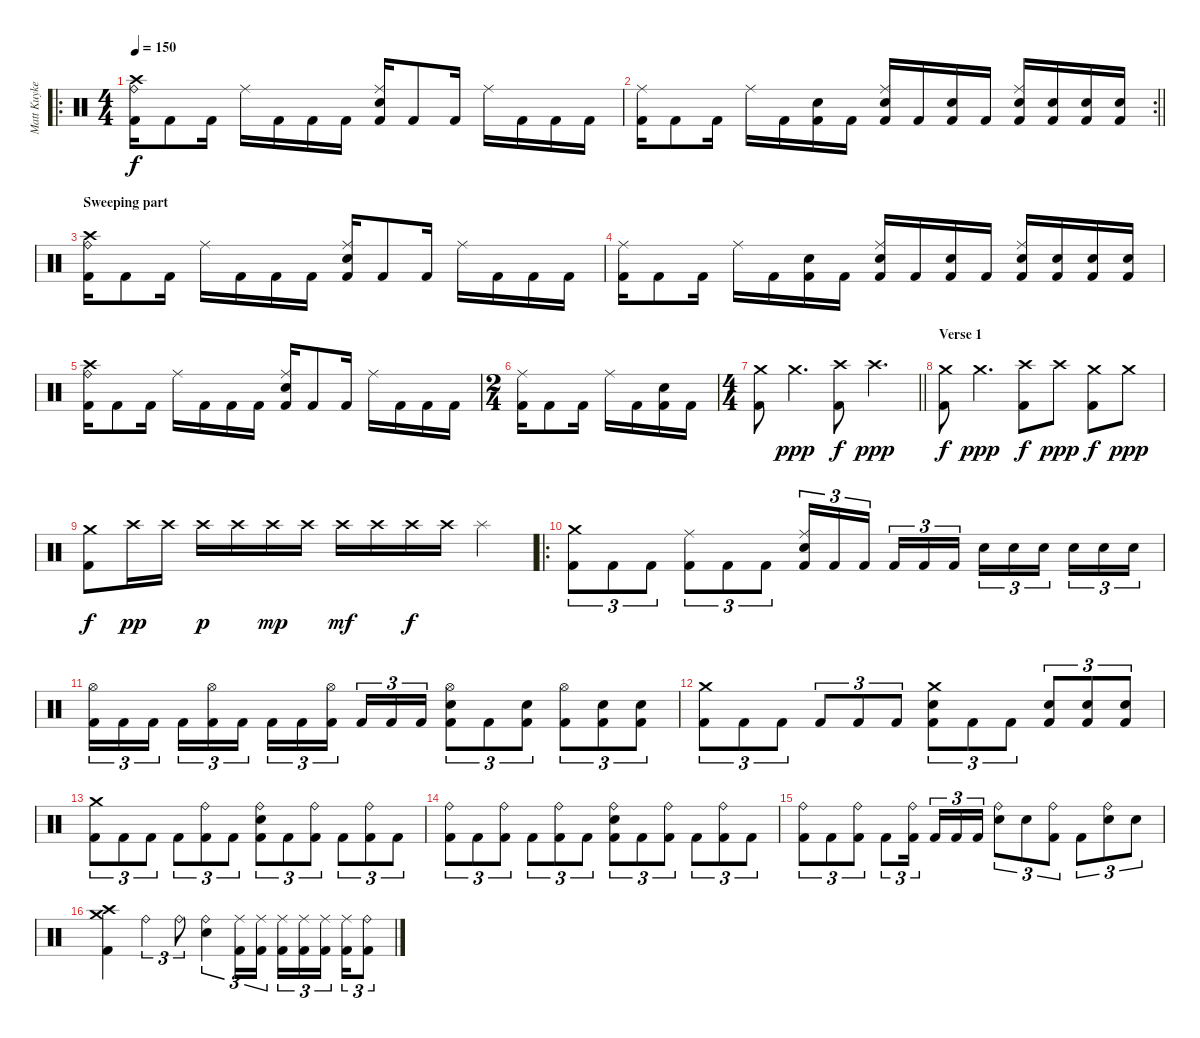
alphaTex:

\track ("Matt Kuykendall" "Matt Kuyke") {instrument percussion}
\staff {score}
\articulation defaults
\ro
\ts (4 4)
\tempo 150
\clef neutral
\ks c
("Ride (bell)" "Crash high (hit)" "Kick (hit) 2").16{dy f} "Kick (hit) 2".8 "Kick (hit) 2".16 "Ride (middle)".16 "Kick (hit) 2".16 "Kick (hit) 2".16 "Kick (hit) 2".16 ("Ride (middle)" "Electric Snare (hit)" "Kick (hit) 2").16 "Kick (hit) 2".8 "Kick (hit) 2".16 "Ride (middle)".16 "Kick (hit) 2".16 "Kick (hit) 2".16 "Kick (hit) 2".16 |
\rc 2
\barLineRight lightlight
("Ride (middle)" "Kick (hit) 2").16 "Kick (hit) 2".8 "Kick (hit) 2".16 "Ride (middle)".16 "Kick (hit) 2".16 ("Electric Snare (hit)" "Kick (hit) 2").16 "Kick (hit) 2".16 ("Ride (middle)" "Electric Snare (hit)" "Kick (hit) 2").16 "Kick (hit) 2".16 ("Electric Snare (hit)" "Kick (hit) 2").16 "Kick (hit) 2".16 ("Ride (middle)" "Electric Snare (hit)" "Kick (hit) 2").16 ("Electric Snare (hit)" "Kick (hit) 2").16 ("Electric Snare (hit)" "Kick (hit) 2").16 ("Electric Snare (hit)" "Kick (hit) 2").16 |
\section ("" "Sweeping part")
("Ride (bell)" "Crash high (hit)" "Kick (hit) 2").16 "Kick (hit) 2".8 "Kick (hit) 2".16 "Ride (middle)".16 "Kick (hit) 2".16 "Kick (hit) 2".16 "Kick (hit) 2".16 ("Ride (middle)" "Electric Snare (hit)" "Kick (hit) 2").16 "Kick (hit) 2".8 "Kick (hit) 2".16 "Ride (middle)".16 "Kick (hit) 2".16 "Kick (hit) 2".16 "Kick (hit) 2".16 |
("Ride (middle)" "Kick (hit) 2").16 "Kick (hit) 2".8 "Kick (hit) 2".16 "Ride (middle)".16 "Kick (hit) 2".16 ("Electric Snare (hit)" "Kick (hit) 2").16 "Kick (hit) 2".16 ("Ride (middle)" "Electric Snare (hit)" "Kick (hit) 2").16 "Kick (hit) 2".16 ("Electric Snare (hit)" "Kick (hit) 2").16 "Kick (hit) 2".16 ("Ride (middle)" "Electric Snare (hit)" "Kick (hit) 2").16 ("Electric Snare (hit)" "Kick (hit) 2").16 ("Electric Snare (hit)" "Kick (hit) 2").16 ("Electric Snare (hit)" "Kick (hit) 2").16 |
("Ride (bell)" "Crash high (hit)" "Kick (hit) 2").16 "Kick (hit) 2".8 "Kick (hit) 2".16 "Ride (middle)".16 "Kick (hit) 2".16 "Kick (hit) 2".16 "Kick (hit) 2".16 ("Ride (middle)" "Electric Snare (hit)" "Kick (hit) 2").16 "Kick (hit) 2".8 "Kick (hit) 2".16 "Ride (middle)".16 "Kick (hit) 2".16 "Kick (hit) 2".16 "Kick (hit) 2".16 |
\ts (2 4)
("Ride (middle)" "Kick (hit) 2").16 "Kick (hit) 2".8 "Kick (hit) 2".16 "Ride (middle)".16 "Kick (hit) 2".16 ("Electric Snare (hit)" "Kick (hit) 2").16 "Kick (hit) 2".16 |
\ts (4 4)
\barLineRight lightlight
("Crash medium (hit)" "Kick (hit) 2").8 "Crash medium (hit)".4{d dy ppp} ("Crash high (hit)" "Kick (hit) 2").8{dy f} "Crash high (hit)".4{d dy ppp} |
\section ("" "Verse 1")
("Crash medium (hit)" "Kick (hit) 2").8{dy f} "Crash medium (hit)".4{d dy ppp} ("Crash high (hit)" "Kick (hit) 2").8{dy f} "Crash high (hit)".8{dy ppp} ("Crash medium (hit)" "Kick (hit) 2").8{dy f} "Crash medium (hit)".8{dy ppp} |
("Crash medium (hit)" "Kick (hit) 2").8{dy f} "Crash high (hit)".16{dy pp} "Crash high (hit)".16 "Crash high (hit)".16{dy p} "Crash high (hit)".16 "Crash high (hit)".16{dy mp} "Crash high (hit)".16 "Crash high (hit)".16{dy mf} "Crash high (hit)".16 "Crash high (hit)".16{dy f} "Crash high (hit)".16 "Splash (hit)".4 |
\ro
("Crash medium (hit)" "Kick (hit) 2").8{tu (3 2)} "Kick (hit) 2".8{tu (3 2)} "Kick (hit) 2".8{tu (3 2)} ("Ride (middle)" "Kick (hit) 2").8{tu (3 2)} "Kick (hit) 2".8{tu (3 2)} "Kick (hit) 2".8{tu (3 2)} ("Ride (middle)" "Electric Snare (hit)" "Kick (hit) 2").16{tu (3 2)} "Kick (hit) 2".16{tu (3 2)} "Kick (hit) 2".16{tu (3 2) beam splitsecondary} "Kick (hit) 2".16{tu (3 2)} "Kick (hit) 2".16{tu (3 2)} "Kick (hit) 2".16{tu (3 2)} "Electric Snare (hit)".16{tu (3 2)} "Electric Snare (hit)".16{tu (3 2)} "Electric Snare (hit)".16{tu (3 2) beam splitsecondary} "Electric Snare (hit)".16{tu (3 2)} "Electric Snare (hit)".16{tu (3 2)} "Electric Snare (hit)".16{tu (3 2)} |
("Hi-Hat (open)" "Kick (hit) 2").16{tu (3 2)} "Kick (hit) 2".16{tu (3 2)} "Kick (hit) 2".16{tu (3 2) beam splitsecondary} "Kick (hit) 2".16{tu (3 2)} ("Hi-Hat (open)" "Kick (hit) 2").16{tu (3 2)} "Kick (hit) 2".16{tu (3 2)} "Kick (hit) 2".16{tu (3 2)} "Kick (hit) 2".16{tu (3 2)} ("Hi-Hat (open)" "Kick (hit) 2").16{tu (3 2) beam splitsecondary} "Kick (hit) 2".16{tu (3 2)} "Kick (hit) 2".16{tu (3 2)} "Kick (hit) 2".16{tu (3 2)} ("Hi-Hat (open)" "Electric Snare (hit)" "Kick (hit) 2").8{tu (3 2)} "Kick (hit) 2".8{tu (3 2)} ("Electric Snare (hit)" "Kick (hit) 2").8{tu (3 2)} ("Hi-Hat (open)" "Kick (hit) 2").8{tu (3 2)} ("Electric Snare (hit)" "Kick (hit) 2").8{tu (3 2)} ("Electric Snare (hit)" "Kick (hit) 2").8{tu (3 2)} |
("Crash medium (hit)" "Kick (hit) 2").8{tu (3 2)} "Kick (hit) 2".8{tu (3 2)} "Kick (hit) 2".8{tu (3 2)} "Kick (hit) 2".8{tu (3 2)} "Kick (hit) 2".8{tu (3 2)} "Kick (hit) 2".8{tu (3 2)} ("Crash medium (hit)" "Electric Snare (hit)" "Kick (hit) 2").8{tu (3 2)} "Kick (hit) 2".8{tu (3 2)} "Kick (hit) 2".8{tu (3 2)} ("Electric Snare (hit)" "Kick (hit) 2").8{tu (3 2)} ("Electric Snare (hit)" "Kick (hit) 2").8{tu (3 2)} ("Electric Snare (hit)" "Kick (hit) 2").8{tu (3 2)} |
("Crash medium (hit)" "Kick (hit) 2").8{tu (3 2)} "Kick (hit) 2".8{tu (3 2)} "Kick (hit) 2".8{tu (3 2)} "Kick (hit) 2".8{tu (3 2)} ("Ride (bell)" "Kick (hit) 2").8{tu (3 2)} "Kick (hit) 2".8{tu (3 2)} ("Ride (bell)" "Electric Snare (hit)" "Kick (hit) 2").8{tu (3 2)} "Kick (hit) 2".8{tu (3 2)} ("Ride (bell)" "Kick (hit) 2").8{tu (3 2)} "Kick (hit) 2".8{tu (3 2)} ("Ride (bell)" "Kick (hit) 2").8{tu (3 2)} "Kick (hit) 2".8{tu (3 2)} |
("Ride (bell)" "Kick (hit) 2").8{tu (3 2)} "Kick (hit) 2".8{tu (3 2)} ("Ride (bell)" "Kick (hit) 2").8{tu (3 2)} "Kick (hit) 2".8{tu (3 2)} ("Ride (bell)" "Kick (hit) 2").8{tu (3 2)} "Kick (hit) 2".8{tu (3 2)} ("Ride (bell)" "Electric Snare (hit)" "Kick (hit) 2").8{tu (3 2)} "Kick (hit) 2".8{tu (3 2)} ("Ride (bell)" "Kick (hit) 2").8{tu (3 2)} "Kick (hit) 2".8{tu (3 2)} ("Ride (bell)" "Kick (hit) 2").8{tu (3 2)} "Kick (hit) 2".8{tu (3 2)} |
("Ride (bell)" "Kick (hit) 2").8{tu (3 2)} "Kick (hit) 2".8{tu (3 2)} ("Ride (bell)" "Kick (hit) 2").8{tu (3 2)} "Kick (hit) 2".8{tu (3 2)} ("Ride (bell)" "Kick (hit) 2").16{tu (3 2) beam splitsecondary} "Kick (hit) 2".16{tu (3 2)} "Kick (hit) 2".16{tu (3 2)} "Kick (hit) 2".16{tu (3 2)} ("Ride (bell)" "Electric Snare (hit)").8{tu (3 2)} "Electric Snare (hit)".8{tu (3 2)} ("Ride (bell)" "Kick (hit) 2").8{tu (3 2)} "Kick (hit) 2".8{tu (3 2)} ("Ride (bell)" "Electric Snare (hit)").8{tu (3 2)} "Electric Snare (hit)".8{tu (3 2)} |
("Crash medium (hit)" "Crash high (hit)" "Kick (hit) 2").4 "Ride (bell)".4{tu (3 2)} "Ride (bell)".8{tu (3 2)} ("Ride (bell)" "Electric Snare (hit)").4{tu (3 2)} ("Ride (middle)" "Kick (hit) 2").16{tu (3 2)} ("Ride (middle)" "Kick (hit) 2").16{tu (3 2)} ("Ride (middle)" "Kick (hit) 2").16{tu (3 2)} ("Ride (middle)" "Kick (hit) 2").16{tu (3 2)} ("Ride (middle)" "Kick (hit) 2").16{tu (3 2) beam splitsecondary} ("Ride (middle)" "Kick (hit) 2").16{tu (3 2)} ("Ride (bell)" "Kick (hit) 2").8{tu (3 2)}
